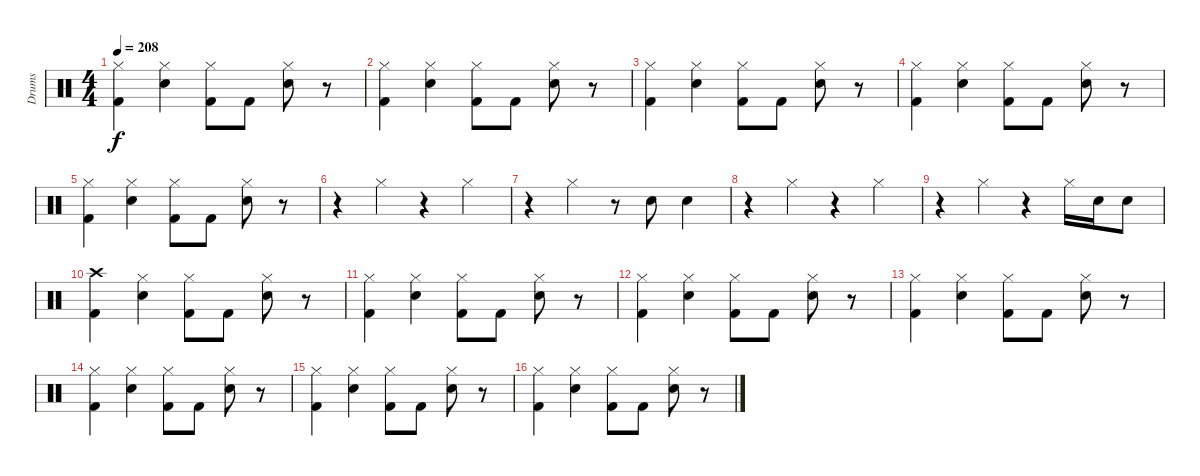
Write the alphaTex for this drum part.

\track ("Drums" "Drums") {instrument percussion}
\staff {score}
\articulation defaults
\ts (4 4)
\tempo 208
\clef neutral
\ks c
("Hi-Hat (closed)" "Kick (hit) 2").4{dy f} ("Hi-Hat (closed)" "Snare (hit) 2").4 ("Hi-Hat (closed)" "Kick (hit) 2").8 "Kick (hit) 2".8 ("Hi-Hat (closed)" "Snare (hit) 2").8 r.8 |
("Hi-Hat (closed)" "Kick (hit) 2").4 ("Hi-Hat (closed)" "Snare (hit) 2").4 ("Hi-Hat (closed)" "Kick (hit) 2").8 "Kick (hit) 2".8 ("Hi-Hat (closed)" "Snare (hit) 2").8 r.8 |
("Hi-Hat (closed)" "Kick (hit) 2").4 ("Hi-Hat (closed)" "Snare (hit) 2").4 ("Hi-Hat (closed)" "Kick (hit) 2").8 "Kick (hit) 2".8 ("Hi-Hat (closed)" "Snare (hit) 2").8 r.8 |
("Hi-Hat (closed)" "Kick (hit) 2").4 ("Hi-Hat (closed)" "Snare (hit) 2").4 ("Hi-Hat (closed)" "Kick (hit) 2").8 "Kick (hit) 2".8 ("Hi-Hat (closed)" "Snare (hit) 2").8 r.8 |
("Hi-Hat (closed)" "Kick (hit) 2").4 ("Hi-Hat (closed)" "Snare (hit) 2").4 ("Hi-Hat (closed)" "Kick (hit) 2").8 "Kick (hit) 2".8 ("Hi-Hat (closed)" "Snare (hit) 2").8 r.8 |
r.4 "Hi-Hat (closed)".4 r.4 "Hi-Hat (closed)".4 |
r.4 "Hi-Hat (closed)".4 r.8 "Snare (hit) 2".8 "Snare (hit) 2".4 |
r.4 "Hi-Hat (closed)".4 r.4 "Hi-Hat (closed)".4 |
r.4 "Hi-Hat (closed)".4 r.4 "Hi-Hat (closed)".16 "Snare (hit) 2".16 "Snare (hit) 2".8 |
("Crash high (hit)" "Kick (hit) 2").4 ("Hi-Hat (closed)" "Snare (hit) 2").4 ("Hi-Hat (closed)" "Kick (hit) 2").8 "Kick (hit) 2".8 ("Hi-Hat (closed)" "Snare (hit) 2").8 r.8 |
("Hi-Hat (closed)" "Kick (hit) 2").4 ("Hi-Hat (closed)" "Snare (hit) 2").4 ("Hi-Hat (closed)" "Kick (hit) 2").8 "Kick (hit) 2".8 ("Hi-Hat (closed)" "Snare (hit) 2").8 r.8 |
("Hi-Hat (closed)" "Kick (hit) 2").4 ("Hi-Hat (closed)" "Snare (hit) 2").4 ("Hi-Hat (closed)" "Kick (hit) 2").8 "Kick (hit) 2".8 ("Hi-Hat (closed)" "Snare (hit) 2").8 r.8 |
("Hi-Hat (closed)" "Kick (hit) 2").4 ("Hi-Hat (closed)" "Snare (hit) 2").4 ("Hi-Hat (closed)" "Kick (hit) 2").8 "Kick (hit) 2".8 ("Hi-Hat (closed)" "Snare (hit) 2").8 r.8 |
("Hi-Hat (closed)" "Kick (hit) 2").4 ("Hi-Hat (closed)" "Snare (hit) 2").4 ("Hi-Hat (closed)" "Kick (hit) 2").8 "Kick (hit) 2".8 ("Hi-Hat (closed)" "Snare (hit) 2").8 r.8 |
("Hi-Hat (closed)" "Kick (hit) 2").4 ("Hi-Hat (closed)" "Snare (hit) 2").4 ("Hi-Hat (closed)" "Kick (hit) 2").8 "Kick (hit) 2".8 ("Hi-Hat (closed)" "Snare (hit) 2").8 r.8 |
("Hi-Hat (closed)" "Kick (hit) 2").4 ("Hi-Hat (closed)" "Snare (hit) 2").4 ("Hi-Hat (closed)" "Kick (hit) 2").8 "Kick (hit) 2".8 ("Hi-Hat (closed)" "Snare (hit) 2").8 r.8
